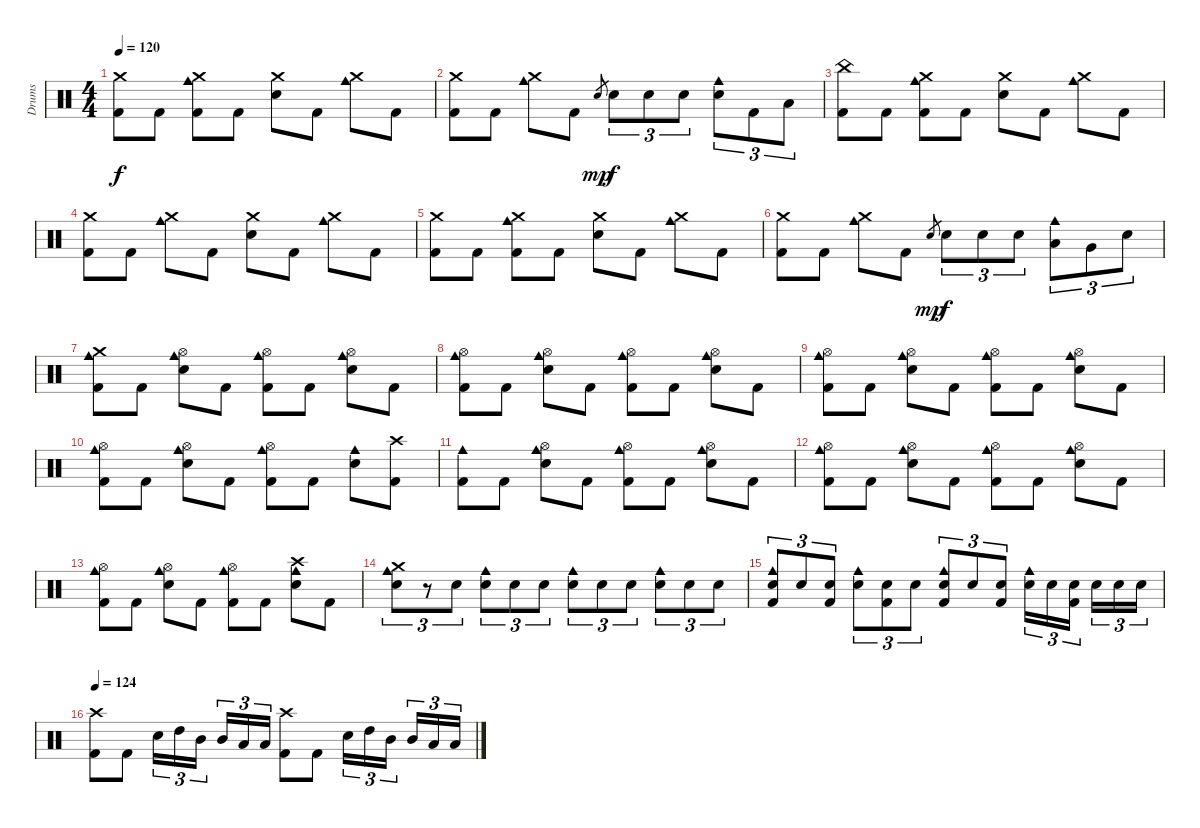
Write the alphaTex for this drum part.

\track ("Drums" "Drums") {instrument percussion}
\staff {score}
\articulation defaults
\ts (4 4)
\tempo 120
\clef neutral
\ks c
("Crash medium (hit)" "Kick (hit) 2").8{dy f} "Kick (hit) 2".8 ("Crash medium (hit)" "Cowbell medium (hit)" "Kick (hit) 2").8 "Kick (hit) 2".8 ("Crash medium (hit)" "Electric Snare (hit)").8 "Kick (hit) 2".8 ("Crash medium (hit)" "Cowbell medium (hit)").8 "Kick (hit) 2".8 |
("Crash medium (hit)" "Kick (hit) 2").8 "Kick (hit) 2".8 ("Crash medium (hit)" "Cowbell medium (hit)").8 "Kick (hit) 2".8 "Electric Snare (hit)".8{gr dy mp} "Electric Snare (hit)".8{tu (3 2) dy f} "Electric Snare (hit)".8{tu (3 2)} "Electric Snare (hit)".8{tu (3 2)} ("Cowbell medium (hit)" "Electric Snare (hit)").8{tu (3 2)} "Kick (hit) 2".8{tu (3 2)} "Low Tom (hit)".8{tu (3 2)} |
("China (hit)" "Kick (hit) 2").8 "Kick (hit) 2".8 ("Crash medium (hit)" "Cowbell medium (hit)" "Kick (hit) 2").8 "Kick (hit) 2".8 ("Crash medium (hit)" "Electric Snare (hit)").8 "Kick (hit) 2".8 ("Crash medium (hit)" "Cowbell medium (hit)").8 "Kick (hit) 2".8 |
("Crash medium (hit)" "Kick (hit) 2").8 "Kick (hit) 2".8 ("Crash medium (hit)" "Cowbell medium (hit)").8 "Kick (hit) 2".8 ("Crash medium (hit)" "Electric Snare (hit)").8 "Kick (hit) 2".8 ("Crash medium (hit)" "Cowbell medium (hit)").8 "Kick (hit) 2".8 |
("Crash medium (hit)" "Kick (hit) 2").8 "Kick (hit) 2".8 ("Crash medium (hit)" "Cowbell medium (hit)" "Kick (hit) 2").8 "Kick (hit) 2".8 ("Crash medium (hit)" "Electric Snare (hit)").8 "Kick (hit) 2".8 ("Crash medium (hit)" "Cowbell medium (hit)").8 "Kick (hit) 2".8 |
("Crash medium (hit)" "Kick (hit) 2").8 "Kick (hit) 2".8 ("Crash medium (hit)" "Cowbell medium (hit)").8 "Kick (hit) 2".8 "Electric Snare (hit)".8{gr dy mp} "Electric Snare (hit)".8{tu (3 2) dy f} "Electric Snare (hit)".8{tu (3 2)} "Electric Snare (hit)".8{tu (3 2)} ("Cowbell medium (hit)" "Low Tom (hit)").8{tu (3 2)} "Very Low Tom (hit)".8{tu (3 2)} "Electric Snare (hit)".8{tu (3 2)} |
("Crash medium (hit)" "Cowbell medium (hit)" "Kick (hit) 2").8 "Kick (hit) 2".8 ("Hi-Hat (open)" "Cowbell medium (hit)" "Electric Snare (hit)").8 "Kick (hit) 2".8 ("Hi-Hat (open)" "Cowbell medium (hit)" "Kick (hit) 2").8 "Kick (hit) 2".8 ("Hi-Hat (open)" "Cowbell medium (hit)" "Electric Snare (hit)").8 "Kick (hit) 2".8 |
("Hi-Hat (open)" "Cowbell medium (hit)" "Kick (hit) 2").8 "Kick (hit) 2".8 ("Hi-Hat (open)" "Cowbell medium (hit)" "Electric Snare (hit)").8 "Kick (hit) 2".8 ("Hi-Hat (open)" "Cowbell medium (hit)" "Kick (hit) 2").8 "Kick (hit) 2".8 ("Hi-Hat (open)" "Cowbell medium (hit)" "Electric Snare (hit)").8 "Kick (hit) 2".8 |
("Hi-Hat (open)" "Cowbell medium (hit)" "Kick (hit) 2").8 "Kick (hit) 2".8 ("Hi-Hat (open)" "Cowbell medium (hit)" "Electric Snare (hit)").8 "Kick (hit) 2".8 ("Hi-Hat (open)" "Cowbell medium (hit)" "Kick (hit) 2").8 "Kick (hit) 2".8 ("Hi-Hat (open)" "Cowbell medium (hit)" "Electric Snare (hit)").8 "Kick (hit) 2".8 |
("Hi-Hat (open)" "Cowbell medium (hit)" "Kick (hit) 2").8 "Kick (hit) 2".8 ("Hi-Hat (open)" "Cowbell medium (hit)" "Electric Snare (hit)").8 "Kick (hit) 2".8 ("Hi-Hat (open)" "Cowbell medium (hit)" "Kick (hit) 2").8 "Kick (hit) 2".8 ("Cowbell medium (hit)" "Electric Snare (hit)").8 ("Crash high (hit)" "Kick (hit) 2").8 |
("Cowbell medium (hit)" "Kick (hit) 2").8 "Kick (hit) 2".8 ("Hi-Hat (open)" "Cowbell medium (hit)" "Electric Snare (hit)").8 "Kick (hit) 2".8 ("Hi-Hat (open)" "Cowbell medium (hit)" "Kick (hit) 2").8 "Kick (hit) 2".8 ("Hi-Hat (open)" "Cowbell medium (hit)" "Electric Snare (hit)").8 "Kick (hit) 2".8 |
("Hi-Hat (open)" "Cowbell medium (hit)" "Kick (hit) 2").8 "Kick (hit) 2".8 ("Hi-Hat (open)" "Cowbell medium (hit)" "Electric Snare (hit)").8 "Kick (hit) 2".8 ("Hi-Hat (open)" "Cowbell medium (hit)" "Kick (hit) 2").8 "Kick (hit) 2".8 ("Hi-Hat (open)" "Cowbell medium (hit)" "Electric Snare (hit)").8 "Kick (hit) 2".8 |
("Hi-Hat (open)" "Cowbell medium (hit)" "Kick (hit) 2").8 "Kick (hit) 2".8 ("Hi-Hat (open)" "Cowbell medium (hit)" "Electric Snare (hit)").8 "Kick (hit) 2".8 ("Hi-Hat (open)" "Cowbell medium (hit)" "Kick (hit) 2").8 "Kick (hit) 2".8 ("Crash high (hit)" "Cowbell medium (hit)" "Electric Snare (hit)").8 "Kick (hit) 2".8 |
("Crash medium (hit)" "Cowbell medium (hit)" "Electric Snare (hit)").8{tu (3 2)} r.8{tu (3 2)} "Electric Snare (hit)".8{tu (3 2)} ("Cowbell medium (hit)" "Electric Snare (hit)").8{tu (3 2)} "Electric Snare (hit)".8{tu (3 2)} "Electric Snare (hit)".8{tu (3 2)} ("Cowbell medium (hit)" "Electric Snare (hit)").8{tu (3 2)} "Electric Snare (hit)".8{tu (3 2)} "Electric Snare (hit)".8{tu (3 2)} ("Cowbell medium (hit)" "Electric Snare (hit)").8{tu (3 2)} "Electric Snare (hit)".8{tu (3 2)} "Electric Snare (hit)".8{tu (3 2)} |
("Cowbell medium (hit)" "Electric Snare (hit)" "Kick (hit) 2").8{tu (3 2)} "Electric Snare (hit)".8{tu (3 2)} ("Electric Snare (hit)" "Kick (hit) 2").8{tu (3 2)} ("Cowbell medium (hit)" "Electric Snare (hit)").8{tu (3 2)} ("Electric Snare (hit)" "Kick (hit) 2").8{tu (3 2)} "Electric Snare (hit)".8{tu (3 2)} ("Cowbell medium (hit)" "Electric Snare (hit)" "Kick (hit) 2").8{tu (3 2)} "Electric Snare (hit)".8{tu (3 2)} ("Electric Snare (hit)" "Kick (hit) 2").8{tu (3 2)} ("Cowbell medium (hit)" "Electric Snare (hit)").16{tu (3 2)} "Electric Snare (hit)".16{tu (3 2)} ("Electric Snare (hit)" "Kick (hit) 2").16{tu (3 2)} "Electric Snare (hit)".16{tu (3 2)} "Electric Snare (hit)".16{tu (3 2)} "Electric Snare (hit)".16{tu (3 2)} |
\tempo 124
("Crash high (hit)" "Kick (hit) 2").8 "Kick (hit) 2".8 "Electric Snare (hit)".16{tu (3 2)} "High Tom (hit)".16{tu (3 2)} "Mid Tom (hit)".16{tu (3 2)} "Mid Tom (hit)".16{tu (3 2)} "Low Tom (hit)".16{tu (3 2)} "Low Tom (hit)".16{tu (3 2)} ("Crash high (hit)" "Kick (hit) 2").8 "Kick (hit) 2".8 "Electric Snare (hit)".16{tu (3 2)} "High Tom (hit)".16{tu (3 2)} "Mid Tom (hit)".16{tu (3 2)} "Mid Tom (hit)".16{tu (3 2)} "Low Tom (hit)".16{tu (3 2)} "Low Tom (hit)".16{tu (3 2)}
